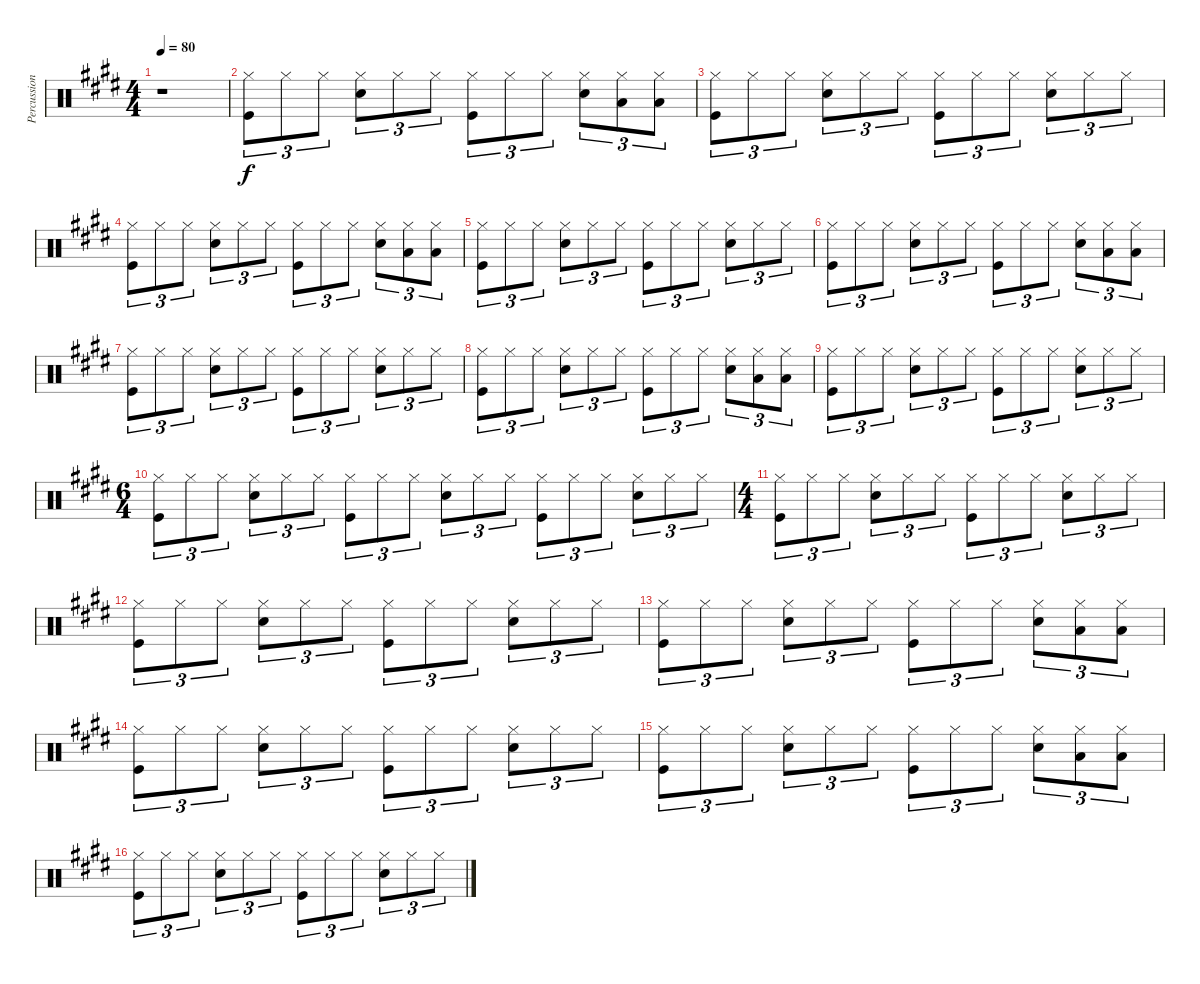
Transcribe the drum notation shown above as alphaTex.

\track ("Percussion" "Percussion") {instrument percussion}
\staff {score}
\articulation defaults
\ts (4 4)
\tempo 80
\clef neutral
\ks e
r.1{dy f} |
("Hi-Hat (closed)" "Kick (hit)").8{tu (3 2)} "Hi-Hat (closed)".8{tu (3 2)} "Hi-Hat (closed)".8{tu (3 2)} ("Hi-Hat (closed)" "Snare (hit) 2").8{tu (3 2)} "Hi-Hat (closed)".8{tu (3 2)} "Hi-Hat (closed)".8{tu (3 2)} ("Hi-Hat (closed)" "Kick (hit)").8{tu (3 2)} "Hi-Hat (closed)".8{tu (3 2)} "Hi-Hat (closed)".8{tu (3 2)} ("Hi-Hat (closed)" "Snare (hit) 2").8{tu (3 2)} ("Hi-Hat (closed)" "Low Tom (hit)").8{tu (3 2)} ("Hi-Hat (closed)" "Low Tom (hit)").8{tu (3 2)} |
("Hi-Hat (closed)" "Kick (hit)").8{tu (3 2)} "Hi-Hat (closed)".8{tu (3 2)} "Hi-Hat (closed)".8{tu (3 2)} ("Hi-Hat (closed)" "Snare (hit) 2").8{tu (3 2)} "Hi-Hat (closed)".8{tu (3 2)} "Hi-Hat (closed)".8{tu (3 2)} ("Hi-Hat (closed)" "Kick (hit)").8{tu (3 2)} "Hi-Hat (closed)".8{tu (3 2)} "Hi-Hat (closed)".8{tu (3 2)} ("Hi-Hat (closed)" "Snare (hit) 2").8{tu (3 2)} "Hi-Hat (closed)".8{tu (3 2)} "Hi-Hat (closed)".8{tu (3 2)} |
("Hi-Hat (closed)" "Kick (hit)").8{tu (3 2)} "Hi-Hat (closed)".8{tu (3 2)} "Hi-Hat (closed)".8{tu (3 2)} ("Hi-Hat (closed)" "Snare (hit) 2").8{tu (3 2)} "Hi-Hat (closed)".8{tu (3 2)} "Hi-Hat (closed)".8{tu (3 2)} ("Hi-Hat (closed)" "Kick (hit)").8{tu (3 2)} "Hi-Hat (closed)".8{tu (3 2)} "Hi-Hat (closed)".8{tu (3 2)} ("Hi-Hat (closed)" "Snare (hit) 2").8{tu (3 2)} ("Hi-Hat (closed)" "Low Tom (hit)").8{tu (3 2)} ("Hi-Hat (closed)" "Low Tom (hit)").8{tu (3 2)} |
("Hi-Hat (closed)" "Kick (hit)").8{tu (3 2)} "Hi-Hat (closed)".8{tu (3 2)} "Hi-Hat (closed)".8{tu (3 2)} ("Hi-Hat (closed)" "Snare (hit) 2").8{tu (3 2)} "Hi-Hat (closed)".8{tu (3 2)} "Hi-Hat (closed)".8{tu (3 2)} ("Hi-Hat (closed)" "Kick (hit)").8{tu (3 2)} "Hi-Hat (closed)".8{tu (3 2)} "Hi-Hat (closed)".8{tu (3 2)} ("Hi-Hat (closed)" "Snare (hit) 2").8{tu (3 2)} "Hi-Hat (closed)".8{tu (3 2)} "Hi-Hat (closed)".8{tu (3 2)} |
("Hi-Hat (closed)" "Kick (hit)").8{tu (3 2)} "Hi-Hat (closed)".8{tu (3 2)} "Hi-Hat (closed)".8{tu (3 2)} ("Hi-Hat (closed)" "Snare (hit) 2").8{tu (3 2)} "Hi-Hat (closed)".8{tu (3 2)} "Hi-Hat (closed)".8{tu (3 2)} ("Hi-Hat (closed)" "Kick (hit)").8{tu (3 2)} "Hi-Hat (closed)".8{tu (3 2)} "Hi-Hat (closed)".8{tu (3 2)} ("Hi-Hat (closed)" "Snare (hit) 2").8{tu (3 2)} ("Hi-Hat (closed)" "Low Tom (hit)").8{tu (3 2)} ("Hi-Hat (closed)" "Low Tom (hit)").8{tu (3 2)} |
("Hi-Hat (closed)" "Kick (hit)").8{tu (3 2)} "Hi-Hat (closed)".8{tu (3 2)} "Hi-Hat (closed)".8{tu (3 2)} ("Hi-Hat (closed)" "Snare (hit) 2").8{tu (3 2)} "Hi-Hat (closed)".8{tu (3 2)} "Hi-Hat (closed)".8{tu (3 2)} ("Hi-Hat (closed)" "Kick (hit)").8{tu (3 2)} "Hi-Hat (closed)".8{tu (3 2)} "Hi-Hat (closed)".8{tu (3 2)} ("Hi-Hat (closed)" "Snare (hit) 2").8{tu (3 2)} "Hi-Hat (closed)".8{tu (3 2)} "Hi-Hat (closed)".8{tu (3 2)} |
("Hi-Hat (closed)" "Kick (hit)").8{tu (3 2)} "Hi-Hat (closed)".8{tu (3 2)} "Hi-Hat (closed)".8{tu (3 2)} ("Hi-Hat (closed)" "Snare (hit) 2").8{tu (3 2)} "Hi-Hat (closed)".8{tu (3 2)} "Hi-Hat (closed)".8{tu (3 2)} ("Hi-Hat (closed)" "Kick (hit)").8{tu (3 2)} "Hi-Hat (closed)".8{tu (3 2)} "Hi-Hat (closed)".8{tu (3 2)} ("Hi-Hat (closed)" "Snare (hit) 2").8{tu (3 2)} ("Hi-Hat (closed)" "Low Tom (hit)").8{tu (3 2)} ("Hi-Hat (closed)" "Low Tom (hit)").8{tu (3 2)} |
("Hi-Hat (closed)" "Kick (hit)").8{tu (3 2)} "Hi-Hat (closed)".8{tu (3 2)} "Hi-Hat (closed)".8{tu (3 2)} ("Hi-Hat (closed)" "Snare (hit) 2").8{tu (3 2)} "Hi-Hat (closed)".8{tu (3 2)} "Hi-Hat (closed)".8{tu (3 2)} ("Hi-Hat (closed)" "Kick (hit)").8{tu (3 2)} "Hi-Hat (closed)".8{tu (3 2)} "Hi-Hat (closed)".8{tu (3 2)} ("Hi-Hat (closed)" "Snare (hit) 2").8{tu (3 2)} "Hi-Hat (closed)".8{tu (3 2)} "Hi-Hat (closed)".8{tu (3 2)} |
\ts (6 4)
("Hi-Hat (closed)" "Kick (hit)").8{tu (3 2)} "Hi-Hat (closed)".8{tu (3 2)} "Hi-Hat (closed)".8{tu (3 2)} ("Hi-Hat (closed)" "Snare (hit) 2").8{tu (3 2)} "Hi-Hat (closed)".8{tu (3 2)} "Hi-Hat (closed)".8{tu (3 2)} ("Hi-Hat (closed)" "Kick (hit)").8{tu (3 2)} "Hi-Hat (closed)".8{tu (3 2)} "Hi-Hat (closed)".8{tu (3 2)} ("Hi-Hat (closed)" "Snare (hit) 2").8{tu (3 2)} "Hi-Hat (closed)".8{tu (3 2)} "Hi-Hat (closed)".8{tu (3 2)} ("Hi-Hat (closed)" "Kick (hit)").8{tu (3 2)} "Hi-Hat (closed)".8{tu (3 2)} "Hi-Hat (closed)".8{tu (3 2)} ("Hi-Hat (closed)" "Snare (hit) 2").8{tu (3 2)} "Hi-Hat (closed)".8{tu (3 2)} "Hi-Hat (closed)".8{tu (3 2)} |
\ts (4 4)
("Hi-Hat (closed)" "Kick (hit)").8{tu (3 2)} "Hi-Hat (closed)".8{tu (3 2)} "Hi-Hat (closed)".8{tu (3 2)} ("Hi-Hat (closed)" "Snare (hit) 2").8{tu (3 2)} "Hi-Hat (closed)".8{tu (3 2)} "Hi-Hat (closed)".8{tu (3 2)} ("Hi-Hat (closed)" "Kick (hit)").8{tu (3 2)} "Hi-Hat (closed)".8{tu (3 2)} "Hi-Hat (closed)".8{tu (3 2)} ("Hi-Hat (closed)" "Snare (hit) 2").8{tu (3 2)} "Hi-Hat (closed)".8{tu (3 2)} "Hi-Hat (closed)".8{tu (3 2)} |
("Hi-Hat (closed)" "Kick (hit)").8{tu (3 2)} "Hi-Hat (closed)".8{tu (3 2)} "Hi-Hat (closed)".8{tu (3 2)} ("Hi-Hat (closed)" "Snare (hit) 2").8{tu (3 2)} "Hi-Hat (closed)".8{tu (3 2)} "Hi-Hat (closed)".8{tu (3 2)} ("Hi-Hat (closed)" "Kick (hit)").8{tu (3 2)} "Hi-Hat (closed)".8{tu (3 2)} "Hi-Hat (closed)".8{tu (3 2)} ("Hi-Hat (closed)" "Snare (hit) 2").8{tu (3 2)} "Hi-Hat (closed)".8{tu (3 2)} "Hi-Hat (closed)".8{tu (3 2)} |
("Hi-Hat (closed)" "Kick (hit)").8{tu (3 2)} "Hi-Hat (closed)".8{tu (3 2)} "Hi-Hat (closed)".8{tu (3 2)} ("Hi-Hat (closed)" "Snare (hit) 2").8{tu (3 2)} "Hi-Hat (closed)".8{tu (3 2)} "Hi-Hat (closed)".8{tu (3 2)} ("Hi-Hat (closed)" "Kick (hit)").8{tu (3 2)} "Hi-Hat (closed)".8{tu (3 2)} "Hi-Hat (closed)".8{tu (3 2)} ("Hi-Hat (closed)" "Snare (hit) 2").8{tu (3 2)} ("Hi-Hat (closed)" "Low Tom (hit)").8{tu (3 2)} ("Hi-Hat (closed)" "Low Tom (hit)").8{tu (3 2)} |
("Hi-Hat (closed)" "Kick (hit)").8{tu (3 2)} "Hi-Hat (closed)".8{tu (3 2)} "Hi-Hat (closed)".8{tu (3 2)} ("Hi-Hat (closed)" "Snare (hit) 2").8{tu (3 2)} "Hi-Hat (closed)".8{tu (3 2)} "Hi-Hat (closed)".8{tu (3 2)} ("Hi-Hat (closed)" "Kick (hit)").8{tu (3 2)} "Hi-Hat (closed)".8{tu (3 2)} "Hi-Hat (closed)".8{tu (3 2)} ("Hi-Hat (closed)" "Snare (hit) 2").8{tu (3 2)} "Hi-Hat (closed)".8{tu (3 2)} "Hi-Hat (closed)".8{tu (3 2)} |
("Hi-Hat (closed)" "Kick (hit)").8{tu (3 2)} "Hi-Hat (closed)".8{tu (3 2)} "Hi-Hat (closed)".8{tu (3 2)} ("Hi-Hat (closed)" "Snare (hit) 2").8{tu (3 2)} "Hi-Hat (closed)".8{tu (3 2)} "Hi-Hat (closed)".8{tu (3 2)} ("Hi-Hat (closed)" "Kick (hit)").8{tu (3 2)} "Hi-Hat (closed)".8{tu (3 2)} "Hi-Hat (closed)".8{tu (3 2)} ("Hi-Hat (closed)" "Snare (hit) 2").8{tu (3 2)} ("Hi-Hat (closed)" "Low Tom (hit)").8{tu (3 2)} ("Hi-Hat (closed)" "Low Tom (hit)").8{tu (3 2)} |
("Hi-Hat (closed)" "Kick (hit)").8{tu (3 2)} "Hi-Hat (closed)".8{tu (3 2)} "Hi-Hat (closed)".8{tu (3 2)} ("Hi-Hat (closed)" "Snare (hit) 2").8{tu (3 2)} "Hi-Hat (closed)".8{tu (3 2)} "Hi-Hat (closed)".8{tu (3 2)} ("Hi-Hat (closed)" "Kick (hit)").8{tu (3 2)} "Hi-Hat (closed)".8{tu (3 2)} "Hi-Hat (closed)".8{tu (3 2)} ("Hi-Hat (closed)" "Snare (hit) 2").8{tu (3 2)} "Hi-Hat (closed)".8{tu (3 2)} "Hi-Hat (closed)".8{tu (3 2)}
